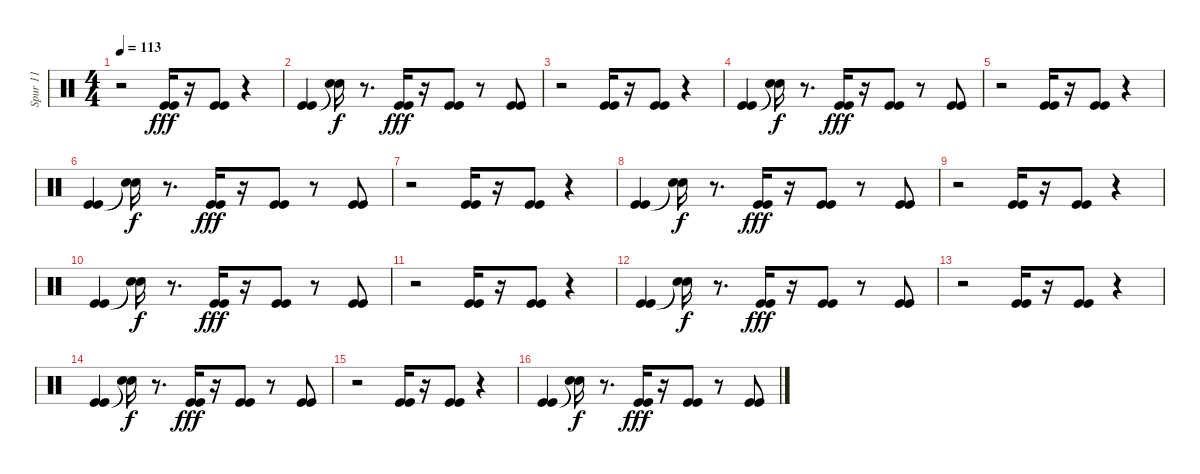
\track ("Spur 11" "Spur 11") {instrument percussion}
\staff {score}
\articulation defaults
\ts (4 4)
\tempo 113
\clef neutral
\ks c
r.2{dy fff} ("Kick (hit)" "Kick (hit)").16 r.16 ("Kick (hit)" "Kick (hit)").8 r.4 |
("Kick (hit)" "Kick (hit)").4{volume 13} ("Snare (hit)"{t} "Snare (hit)"{t}).16{dy f} r.8{d} ("Kick (hit)" "Kick (hit)").16{dy fff} r.16 ("Kick (hit)" "Kick (hit)").8 r.8 ("Kick (hit)" "Kick (hit)").8 |
r.2 ("Kick (hit)" "Kick (hit)").16 r.16 ("Kick (hit)" "Kick (hit)").8 r.4 |
("Kick (hit)" "Kick (hit)").4 ("Snare (hit)"{t} "Snare (hit)"{t}).16{dy f} r.8{d} ("Kick (hit)" "Kick (hit)").16{dy fff} r.16 ("Kick (hit)" "Kick (hit)").8 r.8 ("Kick (hit)" "Kick (hit)").8 |
r.2 ("Kick (hit)" "Kick (hit)").16{volume 12} r.16 ("Kick (hit)" "Kick (hit)").8 r.4 |
("Kick (hit)" "Kick (hit)").4 ("Snare (hit)"{t} "Snare (hit)"{t}).16{dy f} r.8{d} ("Kick (hit)" "Kick (hit)").16{dy fff} r.16 ("Kick (hit)" "Kick (hit)").8 r.8 ("Kick (hit)" "Kick (hit)").8 |
r.2 ("Kick (hit)" "Kick (hit)").16 r.16 ("Kick (hit)" "Kick (hit)").8 r.4 |
("Kick (hit)" "Kick (hit)").4 ("Snare (hit)"{t} "Snare (hit)"{t}).16{dy f} r.8{d} ("Kick (hit)" "Kick (hit)").16{dy fff balance 8} r.16 ("Kick (hit)" "Kick (hit)").8 r.8 ("Kick (hit)" "Kick (hit)").8 |
r.2 ("Kick (hit)" "Kick (hit)").16 r.16 ("Kick (hit)" "Kick (hit)").8 r.4 |
("Kick (hit)" "Kick (hit)").4 ("Snare (hit)"{t} "Snare (hit)"{t}).16{dy f} r.8{d} ("Kick (hit)" "Kick (hit)").16{dy fff volume 12} r.16 ("Kick (hit)" "Kick (hit)").8 r.8 ("Kick (hit)" "Kick (hit)").8 |
r.2 ("Kick (hit)" "Kick (hit)").16 r.16 ("Kick (hit)" "Kick (hit)").8 r.4 |
("Kick (hit)" "Kick (hit)").4 ("Snare (hit)"{t} "Snare (hit)"{t}).16{dy f} r.8{d} ("Kick (hit)" "Kick (hit)").16{dy fff volume 12} r.16 ("Kick (hit)" "Kick (hit)").8 r.8 ("Kick (hit)" "Kick (hit)").8 |
r.2 ("Kick (hit)" "Kick (hit)").16 r.16 ("Kick (hit)" "Kick (hit)").8 r.4 |
("Kick (hit)" "Kick (hit)").4 ("Snare (hit)"{t} "Snare (hit)"{t}).16{dy f} r.8{d} ("Kick (hit)" "Kick (hit)").16{dy fff} r.16 ("Kick (hit)" "Kick (hit)").8 r.8 ("Kick (hit)" "Kick (hit)").8 |
r.2 ("Kick (hit)" "Kick (hit)").16 r.16 ("Kick (hit)" "Kick (hit)").8 r.4 |
("Kick (hit)" "Kick (hit)").4 ("Snare (hit)"{t} "Snare (hit)"{t}).16{dy f} r.8{d} ("Kick (hit)" "Kick (hit)").16{dy fff balance 8} r.16 ("Kick (hit)" "Kick (hit)").8 r.8 ("Kick (hit)" "Kick (hit)").8
